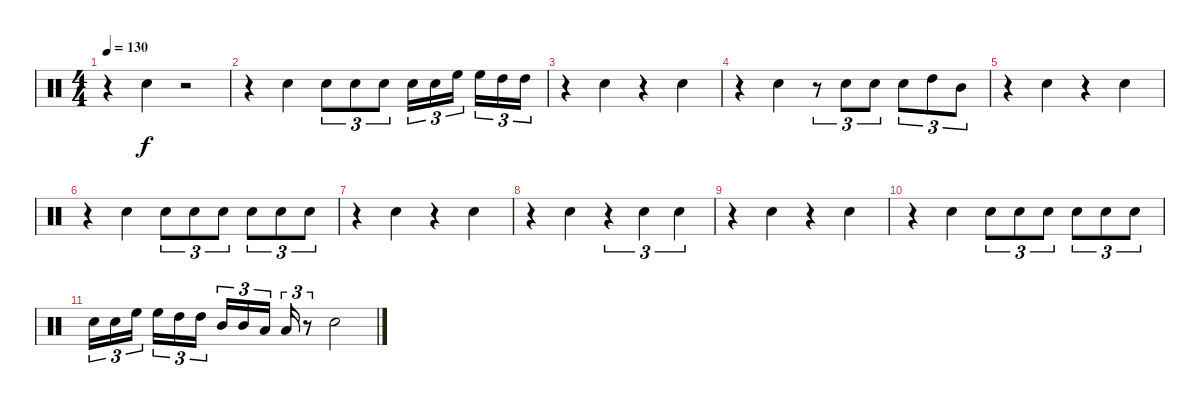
\track "" {instrument percussion}
\staff {score}
\articulation defaults
\ts (4 4)
\tempo 130
\clef neutral
\ks c
r.4{dy f} "Electric Snare (hit)".4 r.2 |
r.4 "Electric Snare (hit)".4 "Electric Snare (hit)".8{tu (3 2)} "Electric Snare (hit)".8{tu (3 2)} "Electric Snare (hit)".8{tu (3 2)} "Electric Snare (hit)".16{tu (3 2)} "Electric Snare (hit)".16{tu (3 2)} "High Floor Tom (hit)".16{tu (3 2)} "High Floor Tom (hit)".16{tu (3 2)} "High Tom (hit)".16{tu (3 2)} "High Tom (hit)".16{tu (3 2)} |
r.4 "Electric Snare (hit)".4 r.4 "Electric Snare (hit)".4 |
r.4 "Electric Snare (hit)".4 r.8{tu (3 2)} "Electric Snare (hit)".8{tu (3 2)} "Electric Snare (hit)".8{tu (3 2)} "Electric Snare (hit)".8{tu (3 2)} "High Tom (hit)".8{tu (3 2)} "Mid Tom (hit)".8{tu (3 2)} |
r.4 "Electric Snare (hit)".4 r.4 "Electric Snare (hit)".4 |
r.4 "Electric Snare (hit)".4 "Electric Snare (hit)".8{tu (3 2)} "Electric Snare (hit)".8{tu (3 2)} "Electric Snare (hit)".8{tu (3 2)} "Electric Snare (hit)".8{tu (3 2)} "Electric Snare (hit)".8{tu (3 2)} "Electric Snare (hit)".8{tu (3 2)} |
r.4 "Electric Snare (hit)".4 r.4 "Electric Snare (hit)".4 |
r.4 "Electric Snare (hit)".4 r.4{tu (3 2)} "Electric Snare (hit)".4{tu (3 2)} "Electric Snare (hit)".4{tu (3 2)} |
r.4 "Electric Snare (hit)".4 r.4 "Electric Snare (hit)".4 |
r.4 "Electric Snare (hit)".4 "Electric Snare (hit)".8{tu (3 2)} "Electric Snare (hit)".8{tu (3 2)} "Electric Snare (hit)".8{tu (3 2)} "Electric Snare (hit)".8{tu (3 2)} "Electric Snare (hit)".8{tu (3 2)} "Electric Snare (hit)".8{tu (3 2)} |
"Electric Snare (hit)".16{tu (3 2)} "Electric Snare (hit)".16{tu (3 2)} "High Floor Tom (hit)".16{tu (3 2)} "High Floor Tom (hit)".16{tu (3 2)} "High Tom (hit)".16{tu (3 2)} "High Tom (hit)".16{tu (3 2)} "Mid Tom (hit)".16{tu (3 2)} "Mid Tom (hit)".16{tu (3 2)} "Low Tom (hit)".16{tu (3 2)} "Low Tom (hit)".16{tu (3 2)} r.8{tu (3 2)} "Electric Snare (hit)".2
